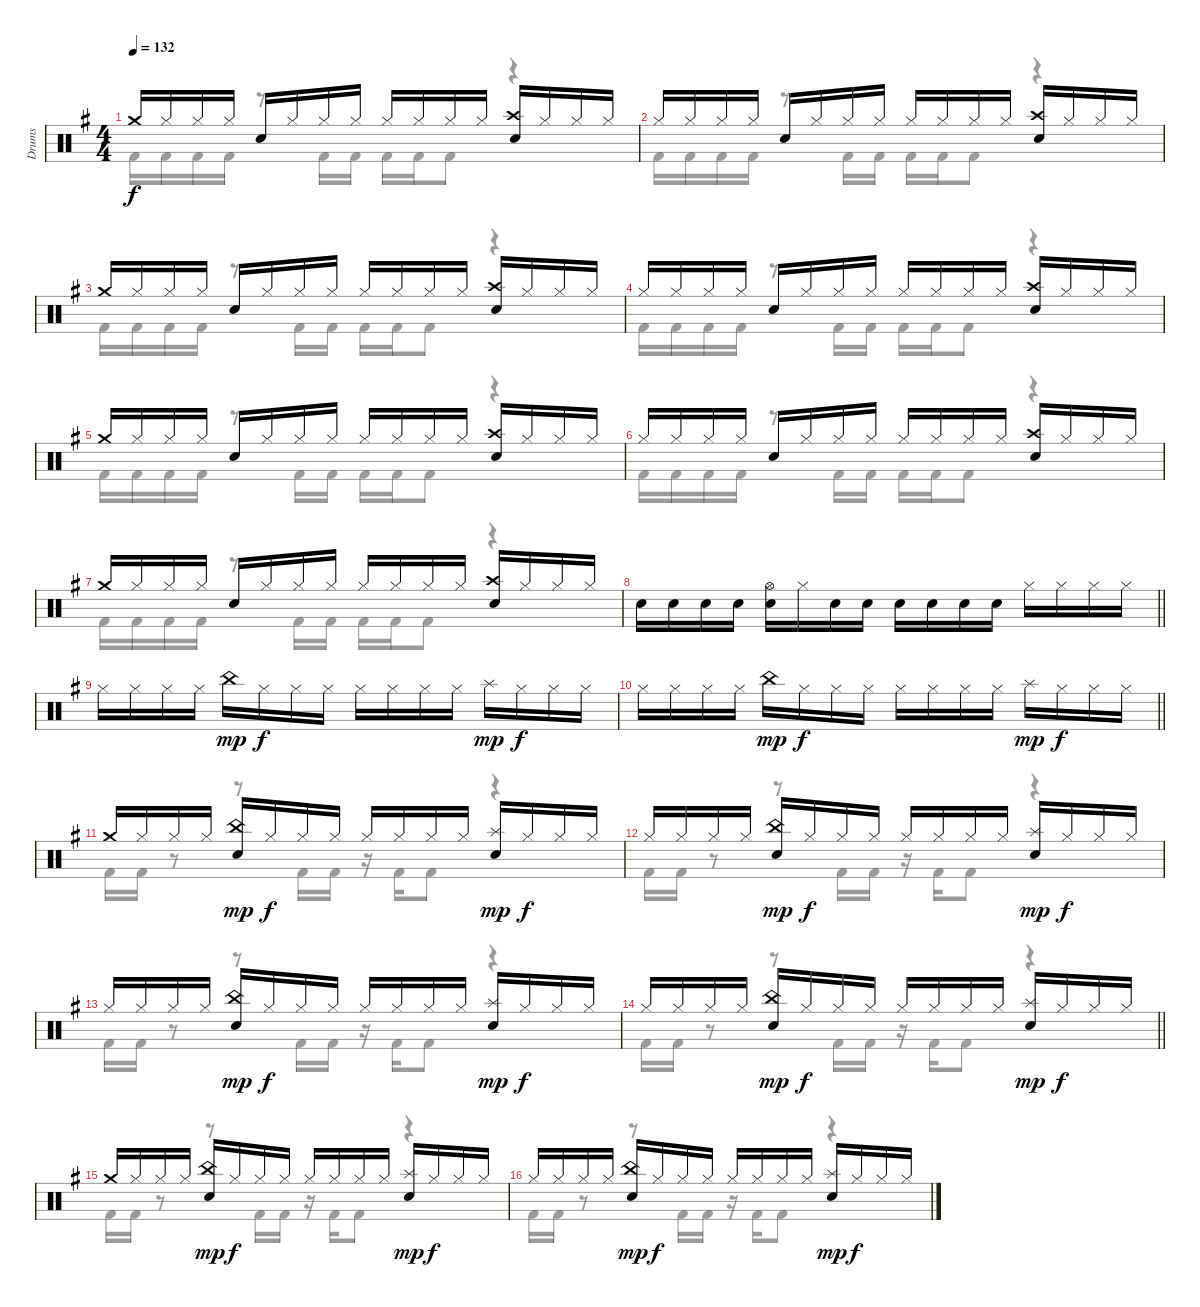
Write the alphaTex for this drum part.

\track ("Drums" "Drums") {instrument percussion}
\staff {score}
\articulation defaults
\voice
\ts (4 4)
\tempo 132
\clef neutral
\ks g "Crash medium (hit)".16{dy f} "Hi-Hat (closed)".16 "Hi-Hat (closed)".16 "Hi-Hat (closed)".16 "Electric Snare (hit)".16 "Hi-Hat (closed)".16 "Hi-Hat (closed)".16 "Hi-Hat (closed)".16 "Hi-Hat (closed)".16 "Hi-Hat (closed)".16 "Hi-Hat (closed)".16 "Hi-Hat (closed)".16
("Crash high (hit)" "Electric Snare (hit)").16 "Hi-Hat (closed)".16 "Hi-Hat (closed)".16 "Hi-Hat (closed)".16 |
"Hi-Hat (closed)".16 "Hi-Hat (closed)".16 "Hi-Hat (closed)".16 "Hi-Hat (closed)".16 "Electric Snare (hit)".16 "Hi-Hat (closed)".16 "Hi-Hat (closed)".16 "Hi-Hat (closed)".16 "Hi-Hat (closed)".16 "Hi-Hat (closed)".16 "Hi-Hat (closed)".16 "Hi-Hat (closed)".16 ("Crash high (hit)" "Electric Snare (hit)").16 "Hi-Hat (closed)".16 "Hi-Hat (closed)".16 "Hi-Hat (closed)".16 |
"Crash medium (hit)".16 "Hi-Hat (closed)".16 "Hi-Hat (closed)".16 "Hi-Hat (closed)".16 "Electric Snare (hit)".16 "Hi-Hat (closed)".16 "Hi-Hat (closed)".16 "Hi-Hat (closed)".16 "Hi-Hat (closed)".16 "Hi-Hat (closed)".16 "Hi-Hat (closed)".16 "Hi-Hat (closed)".16 ("Crash high (hit)" "Electric Snare (hit)").16 "Hi-Hat (closed)".16 "Hi-Hat (closed)".16 "Hi-Hat (closed)".16 |
"Hi-Hat (closed)".16 "Hi-Hat (closed)".16 "Hi-Hat (closed)".16 "Hi-Hat (closed)".16 "Electric Snare (hit)".16 "Hi-Hat (closed)".16 "Hi-Hat (closed)".16 "Hi-Hat (closed)".16 "Hi-Hat (closed)".16 "Hi-Hat (closed)".16 "Hi-Hat (closed)".16 "Hi-Hat (closed)".16 ("Crash high (hit)" "Electric Snare (hit)").16 "Hi-Hat (closed)".16 "Hi-Hat (closed)".16 "Hi-Hat (closed)".16 |
"Crash medium (hit)".16 "Hi-Hat (closed)".16 "Hi-Hat (closed)".16 "Hi-Hat (closed)".16 "Electric Snare (hit)".16 "Hi-Hat (closed)".16 "Hi-Hat (closed)".16 "Hi-Hat (closed)".16 "Hi-Hat (closed)".16 "Hi-Hat (closed)".16 "Hi-Hat (closed)".16 "Hi-Hat (closed)".16 ("Crash high (hit)" "Electric Snare (hit)").16 "Hi-Hat (closed)".16 "Hi-Hat (closed)".16 "Hi-Hat (closed)".16 |
"Hi-Hat (closed)".16 "Hi-Hat (closed)".16 "Hi-Hat (closed)".16 "Hi-Hat (closed)".16 "Electric Snare (hit)".16 "Hi-Hat (closed)".16 "Hi-Hat (closed)".16 "Hi-Hat (closed)".16 "Hi-Hat (closed)".16 "Hi-Hat (closed)".16 "Hi-Hat (closed)".16 "Hi-Hat (closed)".16 ("Crash high (hit)" "Electric Snare (hit)").16 "Hi-Hat (closed)".16 "Hi-Hat (closed)".16 "Hi-Hat (closed)".16 |
"Crash medium (hit)".16 "Hi-Hat (closed)".16 "Hi-Hat (closed)".16 "Hi-Hat (closed)".16 "Electric Snare (hit)".16 "Hi-Hat (closed)".16 "Hi-Hat (closed)".16 "Hi-Hat (closed)".16 "Hi-Hat (closed)".16 "Hi-Hat (closed)".16 "Hi-Hat (closed)".16 "Hi-Hat (closed)".16 ("Crash high (hit)" "Electric Snare (hit)").16 "Hi-Hat (closed)".16 "Hi-Hat (closed)".16 "Hi-Hat (closed)".16 |
\barLineRight lightlight "Electric Snare (hit)".16 "Electric Snare (hit)".16 "Electric Snare (hit)".16 "Electric Snare (hit)".16
("Hi-Hat (open)" "Electric Snare (hit)").16 "Hi-Hat (closed)".16 "Electric Snare (hit)".16 "Electric Snare (hit)".16 "Electric Snare (hit)".16 "Electric Snare (hit)".16 "Electric Snare (hit)".16 "Electric Snare (hit)".16 "Hi-Hat (closed)".16 "Hi-Hat (closed)".16 "Hi-Hat (closed)".16 "Hi-Hat (closed)".16 |
"Hi-Hat (closed)".16 "Hi-Hat (closed)".16 "Hi-Hat (closed)".16 "Hi-Hat (closed)".16 "China (hit)".16{dy mp} "Hi-Hat (closed)".16{dy f} "Hi-Hat (closed)".16 "Hi-Hat (closed)".16 "Hi-Hat (closed)".16 "Hi-Hat (closed)".16 "Hi-Hat (closed)".16 "Hi-Hat (closed)".16 "Splash (hit)".16{dy mp} "Hi-Hat (closed)".16{dy f} "Hi-Hat (closed)".16 "Hi-Hat (closed)".16 |
\barLineRight lightlight "Hi-Hat (closed)".16 "Hi-Hat (closed)".16 "Hi-Hat (closed)".16 "Hi-Hat (closed)".16 "China (hit)".16{dy mp} "Hi-Hat (closed)".16{dy f} "Hi-Hat (closed)".16 "Hi-Hat (closed)".16 "Hi-Hat (closed)".16 "Hi-Hat (closed)".16 "Hi-Hat (closed)".16 "Hi-Hat (closed)".16 "Splash (hit)".16{dy mp} "Hi-Hat (closed)".16{dy f} "Hi-Hat (closed)".16 "Hi-Hat (closed)".16
|
"Crash medium (hit)".16 "Hi-Hat (closed)".16 "Hi-Hat (closed)".16 "Hi-Hat (closed)".16 ("China (hit)" "Electric Snare (hit)").16{dy mp} "Hi-Hat (closed)".16{dy f} "Hi-Hat (closed)".16 "Hi-Hat (closed)".16 "Hi-Hat (closed)".16 "Hi-Hat (closed)".16 "Hi-Hat (closed)".16 "Hi-Hat (closed)".16 ("Splash (hit)" "Electric Snare (hit)").16{dy mp} "Hi-Hat (closed)".16{dy f} "Hi-Hat (closed)".16 "Hi-Hat (closed)".16 |
"Hi-Hat (closed)".16 "Hi-Hat (closed)".16 "Hi-Hat (closed)".16 "Hi-Hat (closed)".16 ("China (hit)" "Electric Snare (hit)").16{dy mp} "Hi-Hat (closed)".16{dy f} "Hi-Hat (closed)".16 "Hi-Hat (closed)".16 "Hi-Hat (closed)".16 "Hi-Hat (closed)".16 "Hi-Hat (closed)".16 "Hi-Hat (closed)".16 ("Splash (hit)" "Electric Snare (hit)").16{dy mp} "Hi-Hat (closed)".16{dy f} "Hi-Hat (closed)".16 "Hi-Hat (closed)".16 |
"Hi-Hat (closed)".16 "Hi-Hat (closed)".16 "Hi-Hat (closed)".16 "Hi-Hat (closed)".16 ("China (hit)" "Electric Snare (hit)").16{dy mp} "Hi-Hat (closed)".16{dy f} "Hi-Hat (closed)".16 "Hi-Hat (closed)".16 "Hi-Hat (closed)".16 "Hi-Hat (closed)".16 "Hi-Hat (closed)".16 "Hi-Hat (closed)".16 ("Splash (hit)" "Electric Snare (hit)").16{dy mp} "Hi-Hat (closed)".16{dy f} "Hi-Hat (closed)".16 "Hi-Hat (closed)".16 |
\barLineRight lightlight "Hi-Hat (closed)".16 "Hi-Hat (closed)".16 "Hi-Hat (closed)".16 "Hi-Hat (closed)".16
("China (hit)" "Electric Snare (hit)").16{dy mp} "Hi-Hat (closed)".16{dy f} "Hi-Hat (closed)".16 "Hi-Hat (closed)".16 "Hi-Hat (closed)".16 "Hi-Hat (closed)".16 "Hi-Hat (closed)".16 "Hi-Hat (closed)".16 ("Splash (hit)" "Electric Snare (hit)").16{dy mp} "Hi-Hat (closed)".16{dy f} "Hi-Hat (closed)".16 "Hi-Hat (closed)".16 |
"Crash medium (hit)".16 "Hi-Hat (closed)".16 "Hi-Hat (closed)".16 "Hi-Hat (closed)".16 ("China (hit)" "Electric Snare (hit)").16{dy mp} "Hi-Hat (closed)".16{dy f} "Hi-Hat (closed)".16 "Hi-Hat (closed)".16 "Hi-Hat (closed)".16 "Hi-Hat (closed)".16 "Hi-Hat (closed)".16 "Hi-Hat (closed)".16 ("Splash (hit)" "Electric Snare (hit)").16{dy mp} "Hi-Hat (closed)".16{dy f} "Hi-Hat (closed)".16 "Hi-Hat (closed)".16 |
"Hi-Hat (closed)".16 "Hi-Hat (closed)".16 "Hi-Hat (closed)".16 "Hi-Hat (closed)".16 ("China (hit)" "Electric Snare (hit)").16{dy mp} "Hi-Hat (closed)".16{dy f} "Hi-Hat (closed)".16 "Hi-Hat (closed)".16 "Hi-Hat (closed)".16 "Hi-Hat (closed)".16 "Hi-Hat (closed)".16 "Hi-Hat (closed)".16 ("Splash (hit)" "Electric Snare (hit)").16{dy mp} "Hi-Hat (closed)".16{dy f} "Hi-Hat (closed)".16 "Hi-Hat (closed)".16
\voice
\clef neutral
\ottava regular
\simile none
\ks g "Kick (hit) 2".16{dy f} "Kick (hit) 2".16 "Kick (hit) 2".16 "Kick (hit) 2".16
r.8 "Kick (hit) 2".16 "Kick (hit) 2".16 "Kick (hit) 2".16 "Kick (hit) 2".16 "Kick (hit) 2".8 r.4 |
"Kick (hit) 2".16 "Kick (hit) 2".16 "Kick (hit) 2".16 "Kick (hit) 2".16 r.8 "Kick (hit) 2".16 "Kick (hit) 2".16 "Kick (hit) 2".16 "Kick (hit) 2".16 "Kick (hit) 2".8 r.4 |
"Kick (hit) 2".16 "Kick (hit) 2".16 "Kick (hit) 2".16 "Kick (hit) 2".16 r.8 "Kick (hit) 2".16 "Kick (hit) 2".16 "Kick (hit) 2".16 "Kick (hit) 2".16 "Kick (hit) 2".8 r.4 |
"Kick (hit) 2".16 "Kick (hit) 2".16 "Kick (hit) 2".16 "Kick (hit) 2".16 r.8 "Kick (hit) 2".16 "Kick (hit) 2".16 "Kick (hit) 2".16 "Kick (hit) 2".16 "Kick (hit) 2".8 r.4 |
"Kick (hit) 2".16 "Kick (hit) 2".16 "Kick (hit) 2".16 "Kick (hit) 2".16 r.8 "Kick (hit) 2".16 "Kick (hit) 2".16 "Kick (hit) 2".16 "Kick (hit) 2".16 "Kick (hit) 2".8 r.4 |
"Kick (hit) 2".16 "Kick (hit) 2".16 "Kick (hit) 2".16 "Kick (hit) 2".16 r.8 "Kick (hit) 2".16 "Kick (hit) 2".16 "Kick (hit) 2".16 "Kick (hit) 2".16 "Kick (hit) 2".8 r.4 |
"Kick (hit) 2".16 "Kick (hit) 2".16 "Kick (hit) 2".16 "Kick (hit) 2".16 r.8 "Kick (hit) 2".16 "Kick (hit) 2".16 "Kick (hit) 2".16 "Kick (hit) 2".16 "Kick (hit) 2".8 r.4 |
\barLineRight lightlight
|
|
\barLineRight lightlight
|
"Kick (hit) 2".16 "Kick (hit) 2".16 r.8 r.8 "Kick (hit) 2".16 "Kick (hit) 2".16 r.16 "Kick (hit) 2".16 "Kick (hit) 2".8 r.4 |
"Kick (hit) 2".16 "Kick (hit) 2".16 r.8 r.8 "Kick (hit) 2".16 "Kick (hit) 2".16 r.16 "Kick (hit) 2".16 "Kick (hit) 2".8 r.4 |
"Kick (hit) 2".16 "Kick (hit) 2".16 r.8 r.8 "Kick (hit) 2".16 "Kick (hit) 2".16 r.16 "Kick (hit) 2".16 "Kick (hit) 2".8 r.4 |
\barLineRight lightlight "Kick (hit) 2".16 "Kick (hit) 2".16
r.8 r.8 "Kick (hit) 2".16 "Kick (hit) 2".16 r.16 "Kick (hit) 2".16 "Kick (hit) 2".8 r.4 |
"Kick (hit) 2".16 "Kick (hit) 2".16 r.8 r.8 "Kick (hit) 2".16 "Kick (hit) 2".16 r.16 "Kick (hit) 2".16 "Kick (hit) 2".8 r.4 |
"Kick (hit) 2".16 "Kick (hit) 2".16 r.8 r.8 "Kick (hit) 2".16 "Kick (hit) 2".16 r.16 "Kick (hit) 2".16 "Kick (hit) 2".8 r.4
